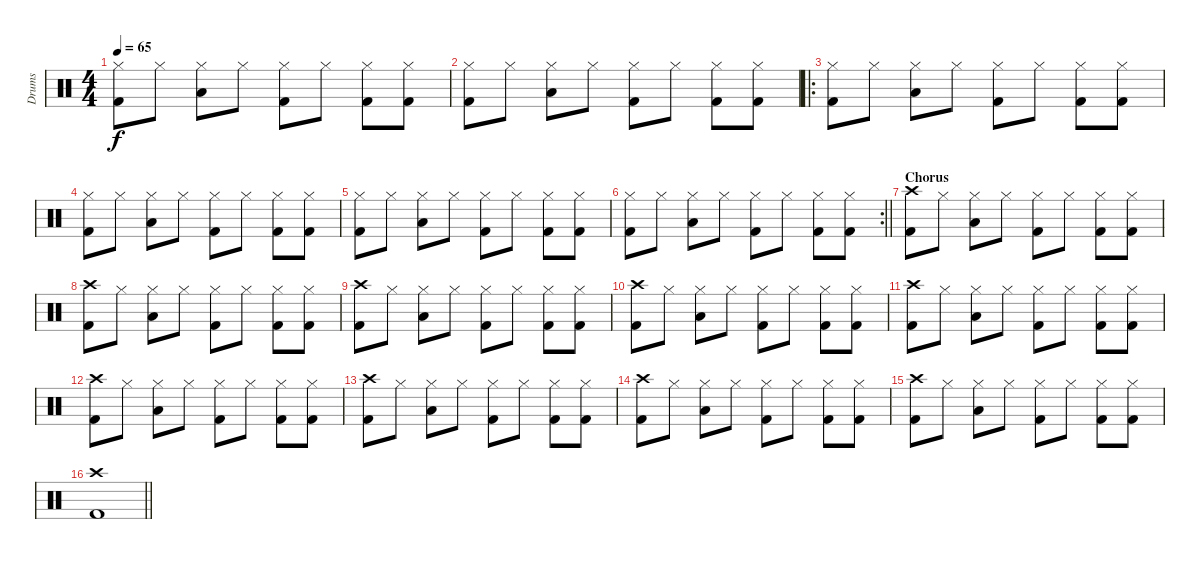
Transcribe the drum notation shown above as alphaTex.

\track ("Drums" "Drums") {instrument percussion}
\staff {score}
\articulation defaults
\ts (4 4)
\tempo 65
\clef neutral
\ks c
("Hi-Hat (closed)" "Kick (hit) 2").8{dy f} "Hi-Hat (closed)".8 ("Hi-Hat (closed)" "Low Floor Tom (hit)").8 "Hi-Hat (closed)".8 ("Hi-Hat (closed)" "Kick (hit) 2").8 "Hi-Hat (closed)".8 ("Hi-Hat (closed)" "Kick (hit) 2").8 ("Hi-Hat (closed)" "Kick (hit) 2").8 |
("Hi-Hat (closed)" "Kick (hit) 2").8 "Hi-Hat (closed)".8 ("Hi-Hat (closed)" "Low Floor Tom (hit)").8 "Hi-Hat (closed)".8 ("Hi-Hat (closed)" "Kick (hit) 2").8 "Hi-Hat (closed)".8 ("Hi-Hat (closed)" "Kick (hit) 2").8 ("Hi-Hat (closed)" "Kick (hit) 2").8 |
\ro
("Hi-Hat (closed)" "Kick (hit) 2").8 "Hi-Hat (closed)".8 ("Hi-Hat (closed)" "Low Floor Tom (hit)").8 "Hi-Hat (closed)".8 ("Hi-Hat (closed)" "Kick (hit) 2").8 "Hi-Hat (closed)".8 ("Hi-Hat (closed)" "Kick (hit) 2").8 ("Hi-Hat (closed)" "Kick (hit) 2").8 |
("Hi-Hat (closed)" "Kick (hit) 2").8 "Hi-Hat (closed)".8 ("Hi-Hat (closed)" "Low Floor Tom (hit)").8 "Hi-Hat (closed)".8 ("Hi-Hat (closed)" "Kick (hit) 2").8 "Hi-Hat (closed)".8 ("Hi-Hat (closed)" "Kick (hit) 2").8 ("Hi-Hat (closed)" "Kick (hit) 2").8 |
("Hi-Hat (closed)" "Kick (hit) 2").8 "Hi-Hat (closed)".8 ("Hi-Hat (closed)" "Low Floor Tom (hit)").8 "Hi-Hat (closed)".8 ("Hi-Hat (closed)" "Kick (hit) 2").8 "Hi-Hat (closed)".8 ("Hi-Hat (closed)" "Kick (hit) 2").8 ("Hi-Hat (closed)" "Kick (hit) 2").8 |
\rc 2
\barLineRight lightlight
("Hi-Hat (closed)" "Kick (hit) 2").8 "Hi-Hat (closed)".8 ("Hi-Hat (closed)" "Low Floor Tom (hit)").8 "Hi-Hat (closed)".8 ("Hi-Hat (closed)" "Kick (hit) 2").8 "Hi-Hat (closed)".8 ("Hi-Hat (closed)" "Kick (hit) 2").8 ("Hi-Hat (closed)" "Kick (hit) 2").8 |
\section ("" "Chorus")
("Crash high (hit)" "Kick (hit) 2").8 "Hi-Hat (closed)".8 ("Hi-Hat (closed)" "Low Floor Tom (hit)").8 "Hi-Hat (closed)".8 ("Hi-Hat (closed)" "Kick (hit) 2").8 "Hi-Hat (closed)".8 ("Hi-Hat (closed)" "Kick (hit) 2").8 ("Hi-Hat (closed)" "Kick (hit) 2").8 |
("Crash high (hit)" "Kick (hit) 2").8 "Hi-Hat (closed)".8 ("Hi-Hat (closed)" "Low Floor Tom (hit)").8 "Hi-Hat (closed)".8 ("Hi-Hat (closed)" "Kick (hit) 2").8 "Hi-Hat (closed)".8 ("Hi-Hat (closed)" "Kick (hit) 2").8 ("Hi-Hat (closed)" "Kick (hit) 2").8 |
("Crash high (hit)" "Kick (hit) 2").8 "Hi-Hat (closed)".8 ("Hi-Hat (closed)" "Low Floor Tom (hit)").8 "Hi-Hat (closed)".8 ("Hi-Hat (closed)" "Kick (hit) 2").8 "Hi-Hat (closed)".8 ("Hi-Hat (closed)" "Kick (hit) 2").8 ("Hi-Hat (closed)" "Kick (hit) 2").8 |
("Crash high (hit)" "Kick (hit) 2").8 "Hi-Hat (closed)".8 ("Hi-Hat (closed)" "Low Floor Tom (hit)").8 "Hi-Hat (closed)".8 ("Hi-Hat (closed)" "Kick (hit) 2").8 "Hi-Hat (closed)".8 ("Hi-Hat (closed)" "Kick (hit) 2").8 ("Hi-Hat (closed)" "Kick (hit) 2").8 |
("Crash high (hit)" "Kick (hit) 2").8 "Hi-Hat (closed)".8 ("Hi-Hat (closed)" "Low Floor Tom (hit)").8 "Hi-Hat (closed)".8 ("Hi-Hat (closed)" "Kick (hit) 2").8 "Hi-Hat (closed)".8 ("Hi-Hat (closed)" "Kick (hit) 2").8 ("Hi-Hat (closed)" "Kick (hit) 2").8 |
("Crash high (hit)" "Kick (hit) 2").8 "Hi-Hat (closed)".8 ("Hi-Hat (closed)" "Low Floor Tom (hit)").8 "Hi-Hat (closed)".8 ("Hi-Hat (closed)" "Kick (hit) 2").8 "Hi-Hat (closed)".8 ("Hi-Hat (closed)" "Kick (hit) 2").8 ("Hi-Hat (closed)" "Kick (hit) 2").8 |
("Crash high (hit)" "Kick (hit) 2").8 "Hi-Hat (closed)".8 ("Hi-Hat (closed)" "Low Floor Tom (hit)").8 "Hi-Hat (closed)".8 ("Hi-Hat (closed)" "Kick (hit) 2").8 "Hi-Hat (closed)".8 ("Hi-Hat (closed)" "Kick (hit) 2").8 ("Hi-Hat (closed)" "Kick (hit) 2").8 |
("Crash high (hit)" "Kick (hit) 2").8 "Hi-Hat (closed)".8 ("Hi-Hat (closed)" "Low Floor Tom (hit)").8 "Hi-Hat (closed)".8 ("Hi-Hat (closed)" "Kick (hit) 2").8 "Hi-Hat (closed)".8 ("Hi-Hat (closed)" "Kick (hit) 2").8 ("Hi-Hat (closed)" "Kick (hit) 2").8 |
("Crash high (hit)" "Kick (hit) 2").8 "Hi-Hat (closed)".8 ("Hi-Hat (closed)" "Low Floor Tom (hit)").8 "Hi-Hat (closed)".8 ("Hi-Hat (closed)" "Kick (hit) 2").8 "Hi-Hat (closed)".8 ("Hi-Hat (closed)" "Kick (hit) 2").8 ("Hi-Hat (closed)" "Kick (hit) 2").8 |
\barLineRight lightlight
("Crash high (hit)" "Kick (hit) 2").1
